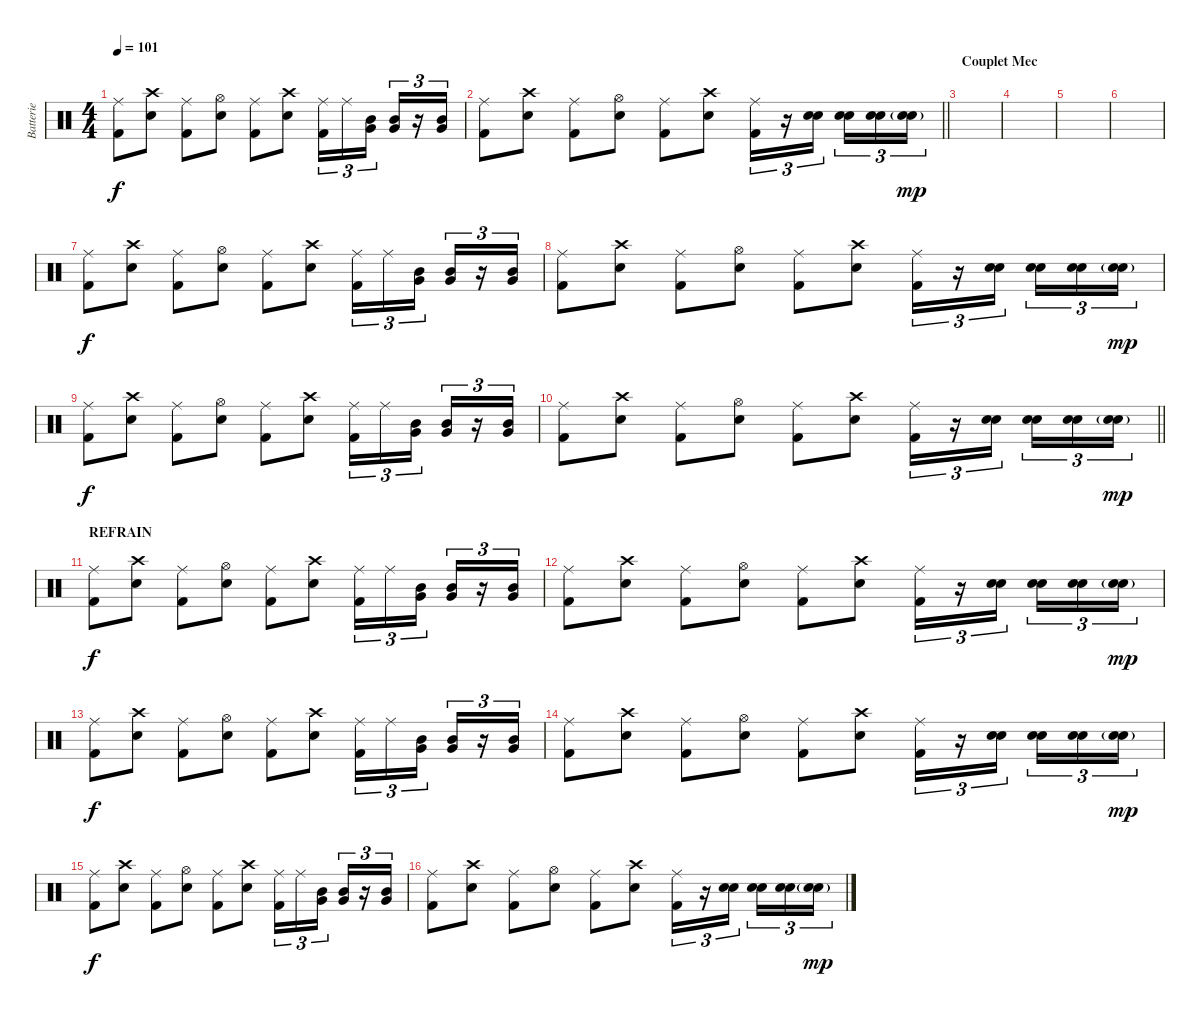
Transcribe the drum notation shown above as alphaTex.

\track ("Batterie" "Batterie") {instrument percussion}
\staff {score}
\articulation defaults
\ts (4 4)
\tempo 101
\clef neutral
\ks c
("Ride (middle)" "Kick (hit) 2").8{dy f} ("Crash high (hit)" "Electric Snare (hit)").8 ("Ride (middle)" "Kick (hit) 2").8 ("Hi-Hat (open)" "Electric Snare (hit)").8 ("Ride (middle)" "Kick (hit) 2").8 ("Crash high (hit)" "Electric Snare (hit)").8 ("Ride (middle)" "Kick (hit) 2").16{tu (3 2)} "Ride (middle)".16{tu (3 2)} ("Very Low Tom (hit)" "Mid Tom (hit)").16{tu (3 2) beam splitsecondary} ("Very Low Tom (hit)" "Mid Tom (hit)").16{tu (3 2)} r.16{tu (3 2)} ("Very Low Tom (hit)" "Mid Tom (hit)").16{tu (3 2)} |
\barLineRight lightlight
("Ride (middle)" "Kick (hit) 2").8 ("Crash high (hit)" "Electric Snare (hit)").8 ("Ride (middle)" "Kick (hit) 2").8 ("Hi-Hat (open)" "Electric Snare (hit)").8 ("Ride (middle)" "Kick (hit) 2").8 ("Crash high (hit)" "Electric Snare (hit)").8 ("Ride (middle)" "Kick (hit) 2").16{tu (3 2)} r.16{tu (3 2)} ("Snare (hit) 2" "Electric Snare (hit)").16{tu (3 2) beam splitsecondary} ("Snare (hit) 2" "Electric Snare (hit)").16{tu (3 2)} ("Snare (hit) 2" "Electric Snare (hit)").16{tu (3 2)} ("Snare (hit) 2"{g} "Electric Snare (hit)"{g}).16{tu (3 2) dy mp} |
\section ("" "Couplet Mec")
|
|
|
|
("Ride (middle)" "Kick (hit) 2").8{dy f} ("Crash high (hit)" "Electric Snare (hit)").8 ("Ride (middle)" "Kick (hit) 2").8 ("Hi-Hat (open)" "Electric Snare (hit)").8 ("Ride (middle)" "Kick (hit) 2").8 ("Crash high (hit)" "Electric Snare (hit)").8 ("Ride (middle)" "Kick (hit) 2").16{tu (3 2)} "Ride (middle)".16{tu (3 2)} ("Very Low Tom (hit)" "Mid Tom (hit)").16{tu (3 2) beam splitsecondary} ("Very Low Tom (hit)" "Mid Tom (hit)").16{tu (3 2)} r.16{tu (3 2)} ("Very Low Tom (hit)" "Mid Tom (hit)").16{tu (3 2)} |
("Ride (middle)" "Kick (hit) 2").8 ("Crash high (hit)" "Electric Snare (hit)").8 ("Ride (middle)" "Kick (hit) 2").8 ("Hi-Hat (open)" "Electric Snare (hit)").8 ("Ride (middle)" "Kick (hit) 2").8 ("Crash high (hit)" "Electric Snare (hit)").8 ("Ride (middle)" "Kick (hit) 2").16{tu (3 2)} r.16{tu (3 2)} ("Snare (hit) 2" "Electric Snare (hit)").16{tu (3 2) beam splitsecondary} ("Snare (hit) 2" "Electric Snare (hit)").16{tu (3 2)} ("Snare (hit) 2" "Electric Snare (hit)").16{tu (3 2)} ("Snare (hit) 2"{g} "Electric Snare (hit)"{g}).16{tu (3 2) dy mp} |
("Ride (middle)" "Kick (hit) 2").8{dy f} ("Crash high (hit)" "Electric Snare (hit)").8 ("Ride (middle)" "Kick (hit) 2").8 ("Hi-Hat (open)" "Electric Snare (hit)").8 ("Ride (middle)" "Kick (hit) 2").8 ("Crash high (hit)" "Electric Snare (hit)").8 ("Ride (middle)" "Kick (hit) 2").16{tu (3 2)} "Ride (middle)".16{tu (3 2)} ("Very Low Tom (hit)" "Mid Tom (hit)").16{tu (3 2) beam splitsecondary} ("Very Low Tom (hit)" "Mid Tom (hit)").16{tu (3 2)} r.16{tu (3 2)} ("Very Low Tom (hit)" "Mid Tom (hit)").16{tu (3 2)} |
\barLineRight lightlight
("Ride (middle)" "Kick (hit) 2").8 ("Crash high (hit)" "Electric Snare (hit)").8 ("Ride (middle)" "Kick (hit) 2").8 ("Hi-Hat (open)" "Electric Snare (hit)").8 ("Ride (middle)" "Kick (hit) 2").8 ("Crash high (hit)" "Electric Snare (hit)").8 ("Ride (middle)" "Kick (hit) 2").16{tu (3 2)} r.16{tu (3 2)} ("Snare (hit) 2" "Electric Snare (hit)").16{tu (3 2) beam splitsecondary} ("Snare (hit) 2" "Electric Snare (hit)").16{tu (3 2)} ("Snare (hit) 2" "Electric Snare (hit)").16{tu (3 2)} ("Snare (hit) 2"{g} "Electric Snare (hit)"{g}).16{tu (3 2) dy mp} |
\section ("" "REFRAIN")
("Ride (middle)" "Kick (hit) 2").8{dy f} ("Crash high (hit)" "Electric Snare (hit)").8 ("Ride (middle)" "Kick (hit) 2").8 ("Hi-Hat (open)" "Electric Snare (hit)").8 ("Ride (middle)" "Kick (hit) 2").8 ("Crash high (hit)" "Electric Snare (hit)").8 ("Ride (middle)" "Kick (hit) 2").16{tu (3 2)} "Ride (middle)".16{tu (3 2)} ("Very Low Tom (hit)" "Mid Tom (hit)").16{tu (3 2) beam splitsecondary} ("Very Low Tom (hit)" "Mid Tom (hit)").16{tu (3 2)} r.16{tu (3 2)} ("Very Low Tom (hit)" "Mid Tom (hit)").16{tu (3 2)} |
("Ride (middle)" "Kick (hit) 2").8 ("Crash high (hit)" "Electric Snare (hit)").8 ("Ride (middle)" "Kick (hit) 2").8 ("Hi-Hat (open)" "Electric Snare (hit)").8 ("Ride (middle)" "Kick (hit) 2").8 ("Crash high (hit)" "Electric Snare (hit)").8 ("Ride (middle)" "Kick (hit) 2").16{tu (3 2)} r.16{tu (3 2)} ("Snare (hit) 2" "Electric Snare (hit)").16{tu (3 2) beam splitsecondary} ("Snare (hit) 2" "Electric Snare (hit)").16{tu (3 2)} ("Snare (hit) 2" "Electric Snare (hit)").16{tu (3 2)} ("Snare (hit) 2"{g} "Electric Snare (hit)"{g}).16{tu (3 2) dy mp} |
("Ride (middle)" "Kick (hit) 2").8{dy f} ("Crash high (hit)" "Electric Snare (hit)").8 ("Ride (middle)" "Kick (hit) 2").8 ("Hi-Hat (open)" "Electric Snare (hit)").8 ("Ride (middle)" "Kick (hit) 2").8 ("Crash high (hit)" "Electric Snare (hit)").8 ("Ride (middle)" "Kick (hit) 2").16{tu (3 2)} "Ride (middle)".16{tu (3 2)} ("Very Low Tom (hit)" "Mid Tom (hit)").16{tu (3 2) beam splitsecondary} ("Very Low Tom (hit)" "Mid Tom (hit)").16{tu (3 2)} r.16{tu (3 2)} ("Very Low Tom (hit)" "Mid Tom (hit)").16{tu (3 2)} |
("Ride (middle)" "Kick (hit) 2").8 ("Crash high (hit)" "Electric Snare (hit)").8 ("Ride (middle)" "Kick (hit) 2").8 ("Hi-Hat (open)" "Electric Snare (hit)").8 ("Ride (middle)" "Kick (hit) 2").8 ("Crash high (hit)" "Electric Snare (hit)").8 ("Ride (middle)" "Kick (hit) 2").16{tu (3 2)} r.16{tu (3 2)} ("Snare (hit) 2" "Electric Snare (hit)").16{tu (3 2) beam splitsecondary} ("Snare (hit) 2" "Electric Snare (hit)").16{tu (3 2)} ("Snare (hit) 2" "Electric Snare (hit)").16{tu (3 2)} ("Snare (hit) 2"{g} "Electric Snare (hit)"{g}).16{tu (3 2) dy mp} |
("Ride (middle)" "Kick (hit) 2").8{dy f} ("Crash high (hit)" "Electric Snare (hit)").8 ("Ride (middle)" "Kick (hit) 2").8 ("Hi-Hat (open)" "Electric Snare (hit)").8 ("Ride (middle)" "Kick (hit) 2").8 ("Crash high (hit)" "Electric Snare (hit)").8 ("Ride (middle)" "Kick (hit) 2").16{tu (3 2)} "Ride (middle)".16{tu (3 2)} ("Very Low Tom (hit)" "Mid Tom (hit)").16{tu (3 2) beam splitsecondary} ("Very Low Tom (hit)" "Mid Tom (hit)").16{tu (3 2)} r.16{tu (3 2)} ("Very Low Tom (hit)" "Mid Tom (hit)").16{tu (3 2)} |
("Ride (middle)" "Kick (hit) 2").8 ("Crash high (hit)" "Electric Snare (hit)").8 ("Ride (middle)" "Kick (hit) 2").8 ("Hi-Hat (open)" "Electric Snare (hit)").8 ("Ride (middle)" "Kick (hit) 2").8 ("Crash high (hit)" "Electric Snare (hit)").8 ("Ride (middle)" "Kick (hit) 2").16{tu (3 2)} r.16{tu (3 2)} ("Snare (hit) 2" "Electric Snare (hit)").16{tu (3 2) beam splitsecondary} ("Snare (hit) 2" "Electric Snare (hit)").16{tu (3 2)} ("Snare (hit) 2" "Electric Snare (hit)").16{tu (3 2)} ("Snare (hit) 2"{g} "Electric Snare (hit)"{g}).16{tu (3 2) dy mp}
